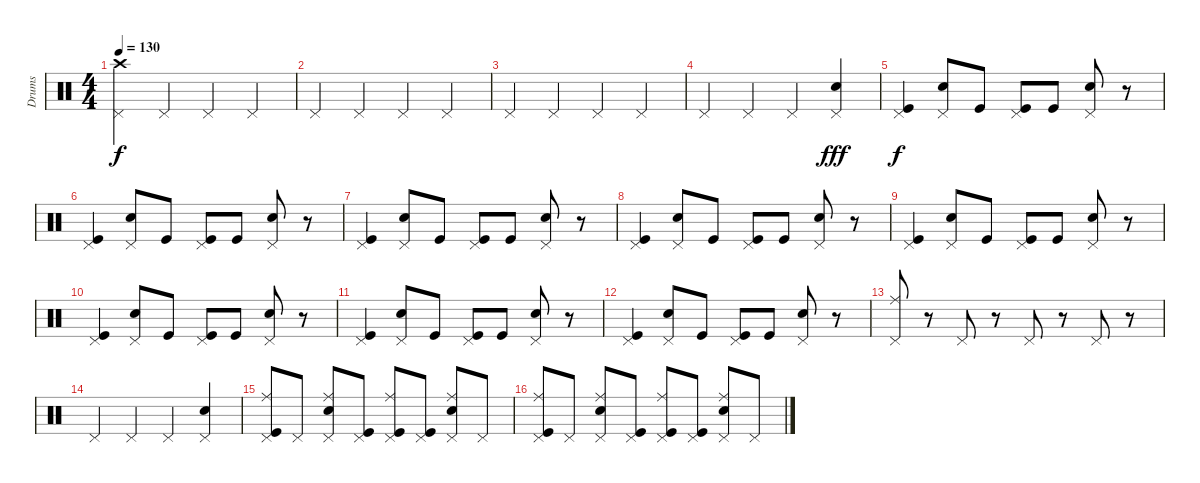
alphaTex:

\track ("Drums" "Drums") {instrument percussion}
\staff {score}
\articulation defaults
\ts (4 4)
\tempo 130
\clef neutral
\ks c
("Crash high (hit)" "Pedal Hi-Hat (hit)").4{dy f} "Pedal Hi-Hat (hit)".4 "Pedal Hi-Hat (hit)".4 "Pedal Hi-Hat (hit)".4 |
"Pedal Hi-Hat (hit)".4 "Pedal Hi-Hat (hit)".4 "Pedal Hi-Hat (hit)".4 "Pedal Hi-Hat (hit)".4 |
"Pedal Hi-Hat (hit)".4 "Pedal Hi-Hat (hit)".4 "Pedal Hi-Hat (hit)".4 "Pedal Hi-Hat (hit)".4 |
"Pedal Hi-Hat (hit)".4 "Pedal Hi-Hat (hit)".4 "Pedal Hi-Hat (hit)".4 ("Electric Snare (hit)" "Pedal Hi-Hat (hit)").4{dy fff} |
("Pedal Hi-Hat (hit)" "Kick (hit)").4{dy f} ("Pedal Hi-Hat (hit)" "Electric Snare (hit)").8 "Kick (hit)".8 ("Pedal Hi-Hat (hit)" "Kick (hit)").8 "Kick (hit)".8 ("Pedal Hi-Hat (hit)" "Electric Snare (hit)").8 r.8 |
("Pedal Hi-Hat (hit)" "Kick (hit)").4 ("Pedal Hi-Hat (hit)" "Electric Snare (hit)").8 "Kick (hit)".8 ("Pedal Hi-Hat (hit)" "Kick (hit)").8 "Kick (hit)".8 ("Pedal Hi-Hat (hit)" "Electric Snare (hit)").8 r.8 |
("Pedal Hi-Hat (hit)" "Kick (hit)").4 ("Pedal Hi-Hat (hit)" "Electric Snare (hit)").8 "Kick (hit)".8 ("Pedal Hi-Hat (hit)" "Kick (hit)").8 "Kick (hit)".8 ("Pedal Hi-Hat (hit)" "Electric Snare (hit)").8 r.8 |
("Pedal Hi-Hat (hit)" "Kick (hit)").4 ("Pedal Hi-Hat (hit)" "Electric Snare (hit)").8 "Kick (hit)".8 ("Pedal Hi-Hat (hit)" "Kick (hit)").8 "Kick (hit)".8 ("Pedal Hi-Hat (hit)" "Electric Snare (hit)").8 r.8 |
("Pedal Hi-Hat (hit)" "Kick (hit)").4 ("Pedal Hi-Hat (hit)" "Electric Snare (hit)").8 "Kick (hit)".8 ("Pedal Hi-Hat (hit)" "Kick (hit)").8 "Kick (hit)".8 ("Pedal Hi-Hat (hit)" "Electric Snare (hit)").8 r.8 |
("Pedal Hi-Hat (hit)" "Kick (hit)").4 ("Pedal Hi-Hat (hit)" "Electric Snare (hit)").8 "Kick (hit)".8 ("Pedal Hi-Hat (hit)" "Kick (hit)").8 "Kick (hit)".8 ("Pedal Hi-Hat (hit)" "Electric Snare (hit)").8 r.8 |
("Pedal Hi-Hat (hit)" "Kick (hit)").4 ("Pedal Hi-Hat (hit)" "Electric Snare (hit)").8 "Kick (hit)".8 ("Pedal Hi-Hat (hit)" "Kick (hit)").8 "Kick (hit)".8 ("Pedal Hi-Hat (hit)" "Electric Snare (hit)").8 r.8 |
("Pedal Hi-Hat (hit)" "Kick (hit)").4 ("Pedal Hi-Hat (hit)" "Electric Snare (hit)").8 "Kick (hit)".8 ("Pedal Hi-Hat (hit)" "Kick (hit)").8 "Kick (hit)".8 ("Pedal Hi-Hat (hit)" "Electric Snare (hit)").8 r.8 |
("Pedal Hi-Hat (hit)" "Ride (middle)").8 r.8 "Pedal Hi-Hat (hit)".8 r.8 "Pedal Hi-Hat (hit)".8 r.8 "Pedal Hi-Hat (hit)".8 r.8 |
"Pedal Hi-Hat (hit)".4 "Pedal Hi-Hat (hit)".4 "Pedal Hi-Hat (hit)".4 ("Electric Snare (hit)" "Pedal Hi-Hat (hit)").4 |
("Ride (middle)" "Pedal Hi-Hat (hit)" "Kick (hit)").8 "Pedal Hi-Hat (hit)".8 ("Ride (middle)" "Pedal Hi-Hat (hit)" "Electric Snare (hit)").8 ("Pedal Hi-Hat (hit)" "Kick (hit)").8 ("Ride (middle)" "Pedal Hi-Hat (hit)" "Kick (hit)").8 ("Pedal Hi-Hat (hit)" "Kick (hit)").8 ("Ride (middle)" "Pedal Hi-Hat (hit)" "Electric Snare (hit)").8 "Pedal Hi-Hat (hit)".8 |
("Ride (middle)" "Pedal Hi-Hat (hit)" "Kick (hit)").8 "Pedal Hi-Hat (hit)".8 ("Ride (middle)" "Pedal Hi-Hat (hit)" "Electric Snare (hit)").8 ("Pedal Hi-Hat (hit)" "Kick (hit)").8 ("Ride (middle)" "Pedal Hi-Hat (hit)" "Kick (hit)").8 ("Pedal Hi-Hat (hit)" "Kick (hit)").8 ("Ride (middle)" "Pedal Hi-Hat (hit)" "Electric Snare (hit)").8 "Pedal Hi-Hat (hit)".8
